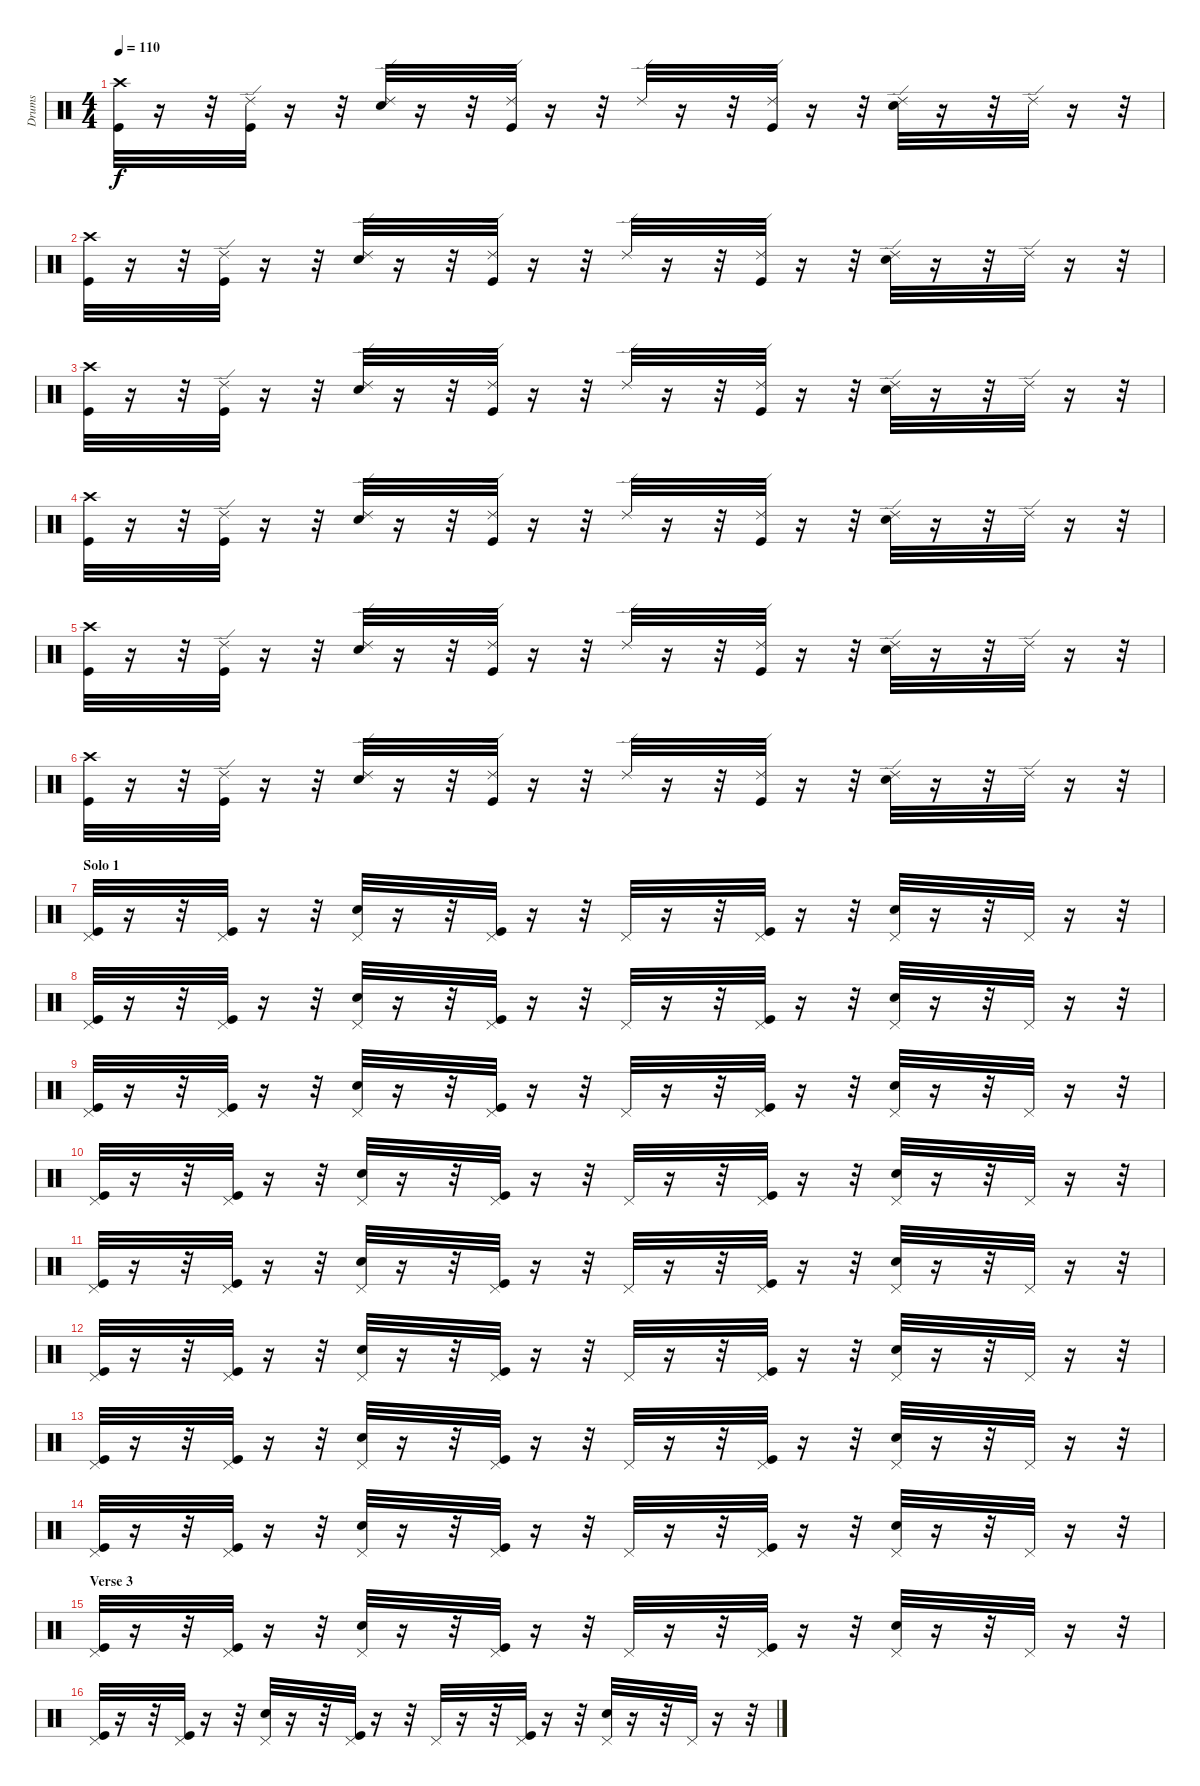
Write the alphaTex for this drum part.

\track ("Drums" "Drums") {instrument percussion}
\staff {score}
\articulation defaults
\ts (4 4)
\tempo 110
\clef neutral
\ks c
("Kick (hit)" "Crash high (hit)").32{dy f} r.16 r.32 ("Ride (edge) 2" "Kick (hit)").32 r.16 r.32 ("Ride (edge) 2" "Electric Snare (hit)").32 r.16 r.32 ("Ride (edge) 2" "Kick (hit)").32 r.16 r.32 "Ride (edge) 2".32 r.16 r.32 ("Ride (edge) 2" "Kick (hit)").32 r.16 r.32 ("Ride (edge) 2" "Electric Snare (hit)").32 r.16 r.32 "Ride (edge) 2".32 r.16 r.32 |
("Kick (hit)" "Crash high (hit)").32 r.16 r.32 ("Ride (edge) 2" "Kick (hit)").32 r.16 r.32 ("Ride (edge) 2" "Electric Snare (hit)").32 r.16 r.32 ("Ride (edge) 2" "Kick (hit)").32 r.16 r.32 "Ride (edge) 2".32 r.16 r.32 ("Ride (edge) 2" "Kick (hit)").32 r.16 r.32 ("Ride (edge) 2" "Electric Snare (hit)").32 r.16 r.32 "Ride (edge) 2".32 r.16 r.32 |
("Kick (hit)" "Crash high (hit)").32 r.16 r.32 ("Ride (edge) 2" "Kick (hit)").32 r.16 r.32 ("Ride (edge) 2" "Electric Snare (hit)").32 r.16 r.32 ("Ride (edge) 2" "Kick (hit)").32 r.16 r.32 "Ride (edge) 2".32 r.16 r.32 ("Ride (edge) 2" "Kick (hit)").32 r.16 r.32 ("Ride (edge) 2" "Electric Snare (hit)").32 r.16 r.32 "Ride (edge) 2".32 r.16 r.32 |
("Kick (hit)" "Crash high (hit)").32 r.16 r.32 ("Ride (edge) 2" "Kick (hit)").32 r.16 r.32 ("Ride (edge) 2" "Electric Snare (hit)").32 r.16 r.32 ("Ride (edge) 2" "Kick (hit)").32 r.16 r.32 "Ride (edge) 2".32 r.16 r.32 ("Ride (edge) 2" "Kick (hit)").32 r.16 r.32 ("Ride (edge) 2" "Electric Snare (hit)").32 r.16 r.32 "Ride (edge) 2".32 r.16 r.32 |
("Kick (hit)" "Crash high (hit)").32 r.16 r.32 ("Ride (edge) 2" "Kick (hit)").32 r.16 r.32 ("Ride (edge) 2" "Electric Snare (hit)").32 r.16 r.32 ("Ride (edge) 2" "Kick (hit)").32 r.16 r.32 "Ride (edge) 2".32 r.16 r.32 ("Ride (edge) 2" "Kick (hit)").32 r.16 r.32 ("Ride (edge) 2" "Electric Snare (hit)").32 r.16 r.32 "Ride (edge) 2".32 r.16 r.32 |
("Kick (hit)" "Crash high (hit)").32 r.16 r.32 ("Ride (edge) 2" "Kick (hit)").32 r.16 r.32 ("Ride (edge) 2" "Electric Snare (hit)").32 r.16 r.32 ("Ride (edge) 2" "Kick (hit)").32 r.16 r.32 "Ride (edge) 2".32 r.16 r.32 ("Ride (edge) 2" "Kick (hit)").32 r.16 r.32 ("Ride (edge) 2" "Electric Snare (hit)").32 r.16 r.32 "Ride (edge) 2".32 r.16 r.32 |
\section ("" "Solo 1")
("Pedal Hi-Hat (hit)" "Kick (hit)").32 r.16 r.32 ("Pedal Hi-Hat (hit)" "Kick (hit)").32 r.16 r.32 ("Pedal Hi-Hat (hit)" "Electric Snare (hit)").32 r.16 r.32 ("Pedal Hi-Hat (hit)" "Kick (hit)").32 r.16 r.32 "Pedal Hi-Hat (hit)".32 r.16 r.32 ("Pedal Hi-Hat (hit)" "Kick (hit)").32 r.16 r.32 ("Pedal Hi-Hat (hit)" "Electric Snare (hit)").32 r.16 r.32 "Pedal Hi-Hat (hit)".32 r.16 r.32 |
("Pedal Hi-Hat (hit)" "Kick (hit)").32 r.16 r.32 ("Pedal Hi-Hat (hit)" "Kick (hit)").32 r.16 r.32 ("Pedal Hi-Hat (hit)" "Electric Snare (hit)").32 r.16 r.32 ("Pedal Hi-Hat (hit)" "Kick (hit)").32 r.16 r.32 "Pedal Hi-Hat (hit)".32 r.16 r.32 ("Pedal Hi-Hat (hit)" "Kick (hit)").32 r.16 r.32 ("Pedal Hi-Hat (hit)" "Electric Snare (hit)").32 r.16 r.32 "Pedal Hi-Hat (hit)".32 r.16 r.32 |
("Pedal Hi-Hat (hit)" "Kick (hit)").32 r.16 r.32 ("Pedal Hi-Hat (hit)" "Kick (hit)").32 r.16 r.32 ("Pedal Hi-Hat (hit)" "Electric Snare (hit)").32 r.16 r.32 ("Pedal Hi-Hat (hit)" "Kick (hit)").32 r.16 r.32 "Pedal Hi-Hat (hit)".32 r.16 r.32 ("Pedal Hi-Hat (hit)" "Kick (hit)").32 r.16 r.32 ("Pedal Hi-Hat (hit)" "Electric Snare (hit)").32 r.16 r.32 "Pedal Hi-Hat (hit)".32 r.16 r.32 |
("Pedal Hi-Hat (hit)" "Kick (hit)").32 r.16 r.32 ("Pedal Hi-Hat (hit)" "Kick (hit)").32 r.16 r.32 ("Pedal Hi-Hat (hit)" "Electric Snare (hit)").32 r.16 r.32 ("Pedal Hi-Hat (hit)" "Kick (hit)").32 r.16 r.32 "Pedal Hi-Hat (hit)".32 r.16 r.32 ("Pedal Hi-Hat (hit)" "Kick (hit)").32 r.16 r.32 ("Pedal Hi-Hat (hit)" "Electric Snare (hit)").32 r.16 r.32 "Pedal Hi-Hat (hit)".32 r.16 r.32 |
("Pedal Hi-Hat (hit)" "Kick (hit)").32 r.16 r.32 ("Pedal Hi-Hat (hit)" "Kick (hit)").32 r.16 r.32 ("Pedal Hi-Hat (hit)" "Electric Snare (hit)").32 r.16 r.32 ("Pedal Hi-Hat (hit)" "Kick (hit)").32 r.16 r.32 "Pedal Hi-Hat (hit)".32 r.16 r.32 ("Pedal Hi-Hat (hit)" "Kick (hit)").32 r.16 r.32 ("Pedal Hi-Hat (hit)" "Electric Snare (hit)").32 r.16 r.32 "Pedal Hi-Hat (hit)".32 r.16 r.32 |
("Pedal Hi-Hat (hit)" "Kick (hit)").32 r.16 r.32 ("Pedal Hi-Hat (hit)" "Kick (hit)").32 r.16 r.32 ("Pedal Hi-Hat (hit)" "Electric Snare (hit)").32 r.16 r.32 ("Pedal Hi-Hat (hit)" "Kick (hit)").32 r.16 r.32 "Pedal Hi-Hat (hit)".32 r.16 r.32 ("Pedal Hi-Hat (hit)" "Kick (hit)").32 r.16 r.32 ("Pedal Hi-Hat (hit)" "Electric Snare (hit)").32 r.16 r.32 "Pedal Hi-Hat (hit)".32 r.16 r.32 |
("Pedal Hi-Hat (hit)" "Kick (hit)").32 r.16 r.32 ("Pedal Hi-Hat (hit)" "Kick (hit)").32 r.16 r.32 ("Pedal Hi-Hat (hit)" "Electric Snare (hit)").32 r.16 r.32 ("Pedal Hi-Hat (hit)" "Kick (hit)").32 r.16 r.32 "Pedal Hi-Hat (hit)".32 r.16 r.32 ("Pedal Hi-Hat (hit)" "Kick (hit)").32 r.16 r.32 ("Pedal Hi-Hat (hit)" "Electric Snare (hit)").32 r.16 r.32 "Pedal Hi-Hat (hit)".32 r.16 r.32 |
("Pedal Hi-Hat (hit)" "Kick (hit)").32 r.16 r.32 ("Pedal Hi-Hat (hit)" "Kick (hit)").32 r.16 r.32 ("Pedal Hi-Hat (hit)" "Electric Snare (hit)").32 r.16 r.32 ("Pedal Hi-Hat (hit)" "Kick (hit)").32 r.16 r.32 "Pedal Hi-Hat (hit)".32 r.16 r.32 ("Pedal Hi-Hat (hit)" "Kick (hit)").32 r.16 r.32 ("Pedal Hi-Hat (hit)" "Electric Snare (hit)").32 r.16 r.32 "Pedal Hi-Hat (hit)".32 r.16 r.32 |
\section ("" "Verse 3")
("Pedal Hi-Hat (hit)" "Kick (hit)").32 r.16 r.32 ("Pedal Hi-Hat (hit)" "Kick (hit)").32 r.16 r.32 ("Pedal Hi-Hat (hit)" "Electric Snare (hit)").32 r.16 r.32 ("Pedal Hi-Hat (hit)" "Kick (hit)").32 r.16 r.32 "Pedal Hi-Hat (hit)".32 r.16 r.32 ("Pedal Hi-Hat (hit)" "Kick (hit)").32 r.16 r.32 ("Pedal Hi-Hat (hit)" "Electric Snare (hit)").32 r.16 r.32 "Pedal Hi-Hat (hit)".32 r.16 r.32 |
("Pedal Hi-Hat (hit)" "Kick (hit)").32 r.16 r.32 ("Pedal Hi-Hat (hit)" "Kick (hit)").32 r.16 r.32 ("Pedal Hi-Hat (hit)" "Electric Snare (hit)").32 r.16 r.32 ("Pedal Hi-Hat (hit)" "Kick (hit)").32 r.16 r.32 "Pedal Hi-Hat (hit)".32 r.16 r.32 ("Pedal Hi-Hat (hit)" "Kick (hit)").32 r.16 r.32 ("Pedal Hi-Hat (hit)" "Electric Snare (hit)").32 r.16 r.32 "Pedal Hi-Hat (hit)".32 r.16 r.32
